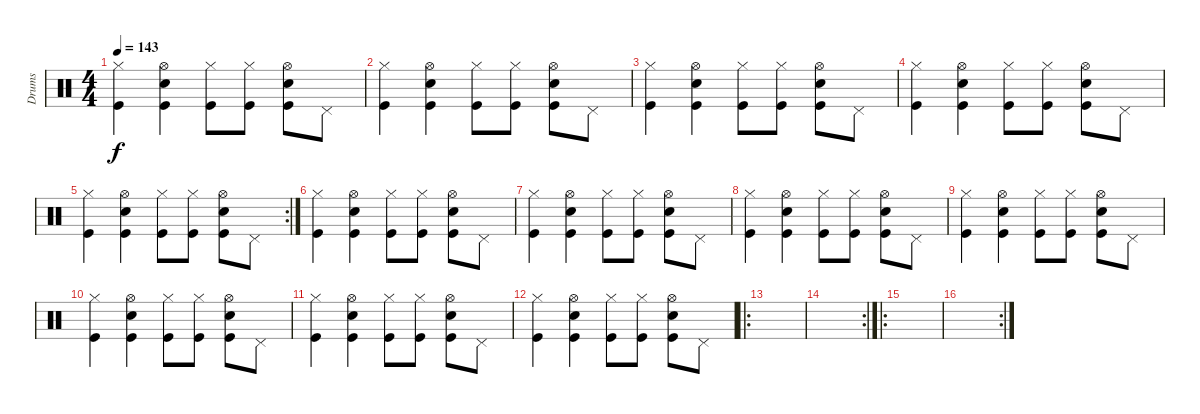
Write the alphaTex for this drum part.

\track ("Drums" "Drums") {instrument percussion}
\staff {score}
\articulation defaults
\ts (4 4)
\tempo 143
\clef neutral
\ks c
("Hi-Hat (closed)" "Kick (hit)").4{dy f} ("Snare (hit) 2" "Hi-Hat (open)" "Kick (hit)").4 ("Hi-Hat (closed)" "Kick (hit)").8 ("Hi-Hat (closed)" "Kick (hit)").8 ("Snare (hit) 2" "Hi-Hat (open)" "Kick (hit)").8 "Pedal Hi-Hat (hit)".8 |
("Hi-Hat (closed)" "Kick (hit)").4 ("Snare (hit) 2" "Hi-Hat (open)" "Kick (hit)").4 ("Hi-Hat (closed)" "Kick (hit)").8 ("Hi-Hat (closed)" "Kick (hit)").8 ("Snare (hit) 2" "Hi-Hat (open)" "Kick (hit)").8 "Pedal Hi-Hat (hit)".8 |
("Hi-Hat (closed)" "Kick (hit)").4 ("Snare (hit) 2" "Hi-Hat (open)" "Kick (hit)").4 ("Hi-Hat (closed)" "Kick (hit)").8 ("Hi-Hat (closed)" "Kick (hit)").8 ("Snare (hit) 2" "Hi-Hat (open)" "Kick (hit)").8 "Pedal Hi-Hat (hit)".8 |
("Hi-Hat (closed)" "Kick (hit)").4 ("Snare (hit) 2" "Hi-Hat (open)" "Kick (hit)").4 ("Hi-Hat (closed)" "Kick (hit)").8 ("Hi-Hat (closed)" "Kick (hit)").8 ("Snare (hit) 2" "Hi-Hat (open)" "Kick (hit)").8 "Pedal Hi-Hat (hit)".8 |
\rc 2
("Hi-Hat (closed)" "Kick (hit)").4 ("Snare (hit) 2" "Hi-Hat (open)" "Kick (hit)").4 ("Hi-Hat (closed)" "Kick (hit)").8 ("Hi-Hat (closed)" "Kick (hit)").8 ("Snare (hit) 2" "Hi-Hat (open)" "Kick (hit)").8 "Pedal Hi-Hat (hit)".8 |
("Hi-Hat (closed)" "Kick (hit)").4 ("Snare (hit) 2" "Hi-Hat (open)" "Kick (hit)").4 ("Hi-Hat (closed)" "Kick (hit)").8 ("Hi-Hat (closed)" "Kick (hit)").8 ("Snare (hit) 2" "Hi-Hat (open)" "Kick (hit)").8 "Pedal Hi-Hat (hit)".8 |
("Hi-Hat (closed)" "Kick (hit)").4 ("Snare (hit) 2" "Hi-Hat (open)" "Kick (hit)").4 ("Hi-Hat (closed)" "Kick (hit)").8 ("Hi-Hat (closed)" "Kick (hit)").8 ("Snare (hit) 2" "Hi-Hat (open)" "Kick (hit)").8 "Pedal Hi-Hat (hit)".8 |
("Hi-Hat (closed)" "Kick (hit)").4 ("Snare (hit) 2" "Hi-Hat (open)" "Kick (hit)").4 ("Hi-Hat (closed)" "Kick (hit)").8 ("Hi-Hat (closed)" "Kick (hit)").8 ("Snare (hit) 2" "Hi-Hat (open)" "Kick (hit)").8 "Pedal Hi-Hat (hit)".8 |
("Hi-Hat (closed)" "Kick (hit)").4 ("Snare (hit) 2" "Hi-Hat (open)" "Kick (hit)").4 ("Hi-Hat (closed)" "Kick (hit)").8 ("Hi-Hat (closed)" "Kick (hit)").8 ("Snare (hit) 2" "Hi-Hat (open)" "Kick (hit)").8 "Pedal Hi-Hat (hit)".8 |
("Hi-Hat (closed)" "Kick (hit)").4 ("Snare (hit) 2" "Hi-Hat (open)" "Kick (hit)").4 ("Hi-Hat (closed)" "Kick (hit)").8 ("Hi-Hat (closed)" "Kick (hit)").8 ("Snare (hit) 2" "Hi-Hat (open)" "Kick (hit)").8 "Pedal Hi-Hat (hit)".8 |
("Hi-Hat (closed)" "Kick (hit)").4 ("Snare (hit) 2" "Hi-Hat (open)" "Kick (hit)").4 ("Hi-Hat (closed)" "Kick (hit)").8 ("Hi-Hat (closed)" "Kick (hit)").8 ("Snare (hit) 2" "Hi-Hat (open)" "Kick (hit)").8 "Pedal Hi-Hat (hit)".8 |
("Hi-Hat (closed)" "Kick (hit)").4 ("Snare (hit) 2" "Hi-Hat (open)" "Kick (hit)").4 ("Hi-Hat (closed)" "Kick (hit)").8 ("Hi-Hat (closed)" "Kick (hit)").8 ("Snare (hit) 2" "Hi-Hat (open)" "Kick (hit)").8 "Pedal Hi-Hat (hit)".8 |
\ro
|
\rc 2
|
\ro
|
\rc 2
